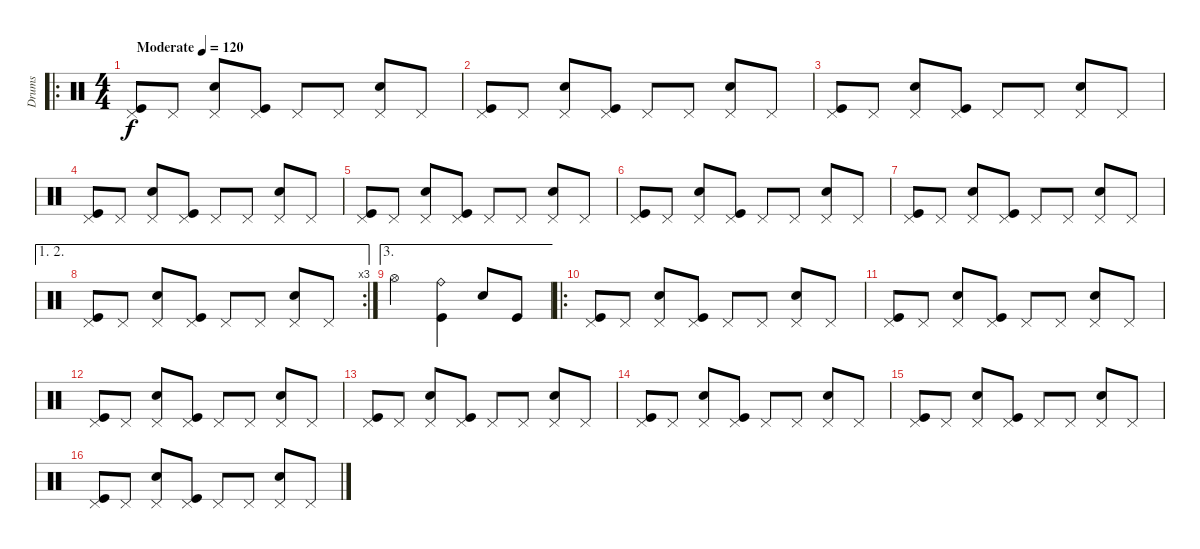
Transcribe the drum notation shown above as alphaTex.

\track ("Drums" "Drums") {instrument percussion}
\staff {score}
\articulation defaults
\ro
\ts (4 4)
\tempo (120 "Moderate")
\clef neutral
\ks c
("Pedal Hi-Hat (hit)" "Kick (hit)").8{dy f} "Pedal Hi-Hat (hit)".8 ("Pedal Hi-Hat (hit)" "Electric Snare (hit)").8 ("Pedal Hi-Hat (hit)" "Kick (hit)").8 "Pedal Hi-Hat (hit)".8 "Pedal Hi-Hat (hit)".8 ("Pedal Hi-Hat (hit)" "Electric Snare (hit)").8 "Pedal Hi-Hat (hit)".8 |
("Pedal Hi-Hat (hit)" "Kick (hit)").8 "Pedal Hi-Hat (hit)".8 ("Pedal Hi-Hat (hit)" "Electric Snare (hit)").8 ("Pedal Hi-Hat (hit)" "Kick (hit)").8 "Pedal Hi-Hat (hit)".8 "Pedal Hi-Hat (hit)".8 ("Pedal Hi-Hat (hit)" "Electric Snare (hit)").8 "Pedal Hi-Hat (hit)".8 |
("Pedal Hi-Hat (hit)" "Kick (hit)").8 "Pedal Hi-Hat (hit)".8 ("Pedal Hi-Hat (hit)" "Electric Snare (hit)").8 ("Pedal Hi-Hat (hit)" "Kick (hit)").8 "Pedal Hi-Hat (hit)".8 "Pedal Hi-Hat (hit)".8 ("Pedal Hi-Hat (hit)" "Electric Snare (hit)").8 "Pedal Hi-Hat (hit)".8 |
("Pedal Hi-Hat (hit)" "Kick (hit)").8 "Pedal Hi-Hat (hit)".8 ("Pedal Hi-Hat (hit)" "Electric Snare (hit)").8 ("Pedal Hi-Hat (hit)" "Kick (hit)").8 "Pedal Hi-Hat (hit)".8 "Pedal Hi-Hat (hit)".8 ("Pedal Hi-Hat (hit)" "Electric Snare (hit)").8 "Pedal Hi-Hat (hit)".8 |
("Pedal Hi-Hat (hit)" "Kick (hit)").8 "Pedal Hi-Hat (hit)".8 ("Pedal Hi-Hat (hit)" "Electric Snare (hit)").8 ("Pedal Hi-Hat (hit)" "Kick (hit)").8 "Pedal Hi-Hat (hit)".8 "Pedal Hi-Hat (hit)".8 ("Pedal Hi-Hat (hit)" "Electric Snare (hit)").8 "Pedal Hi-Hat (hit)".8 |
("Pedal Hi-Hat (hit)" "Kick (hit)").8 "Pedal Hi-Hat (hit)".8 ("Pedal Hi-Hat (hit)" "Electric Snare (hit)").8 ("Pedal Hi-Hat (hit)" "Kick (hit)").8 "Pedal Hi-Hat (hit)".8 "Pedal Hi-Hat (hit)".8 ("Pedal Hi-Hat (hit)" "Electric Snare (hit)").8 "Pedal Hi-Hat (hit)".8 |
("Pedal Hi-Hat (hit)" "Kick (hit)").8 "Pedal Hi-Hat (hit)".8 ("Pedal Hi-Hat (hit)" "Electric Snare (hit)").8 ("Pedal Hi-Hat (hit)" "Kick (hit)").8 "Pedal Hi-Hat (hit)".8 "Pedal Hi-Hat (hit)".8 ("Pedal Hi-Hat (hit)" "Electric Snare (hit)").8 "Pedal Hi-Hat (hit)".8 |
\ae (1 2)
\rc 3
("Pedal Hi-Hat (hit)" "Kick (hit)").8 "Pedal Hi-Hat (hit)".8 ("Pedal Hi-Hat (hit)" "Electric Snare (hit)").8 ("Pedal Hi-Hat (hit)" "Kick (hit)").8 "Pedal Hi-Hat (hit)".8 "Pedal Hi-Hat (hit)".8 ("Pedal Hi-Hat (hit)" "Electric Snare (hit)").8 "Pedal Hi-Hat (hit)".8 |
\ae 3 "Hi-Hat (open)".2
("Ride (bell)" "Kick (hit)").4 "Electric Snare (hit)".8 "Kick (hit)".8 |
\ro
("Pedal Hi-Hat (hit)" "Kick (hit)").8 "Pedal Hi-Hat (hit)".8 ("Pedal Hi-Hat (hit)" "Electric Snare (hit)").8 ("Pedal Hi-Hat (hit)" "Kick (hit)").8 "Pedal Hi-Hat (hit)".8 "Pedal Hi-Hat (hit)".8 ("Pedal Hi-Hat (hit)" "Electric Snare (hit)").8 "Pedal Hi-Hat (hit)".8 |
("Pedal Hi-Hat (hit)" "Kick (hit)").8 "Pedal Hi-Hat (hit)".8 ("Pedal Hi-Hat (hit)" "Electric Snare (hit)").8 ("Pedal Hi-Hat (hit)" "Kick (hit)").8 "Pedal Hi-Hat (hit)".8 "Pedal Hi-Hat (hit)".8 ("Pedal Hi-Hat (hit)" "Electric Snare (hit)").8 "Pedal Hi-Hat (hit)".8 |
("Pedal Hi-Hat (hit)" "Kick (hit)").8 "Pedal Hi-Hat (hit)".8 ("Pedal Hi-Hat (hit)" "Electric Snare (hit)").8 ("Pedal Hi-Hat (hit)" "Kick (hit)").8 "Pedal Hi-Hat (hit)".8 "Pedal Hi-Hat (hit)".8 ("Pedal Hi-Hat (hit)" "Electric Snare (hit)").8 "Pedal Hi-Hat (hit)".8 |
("Pedal Hi-Hat (hit)" "Kick (hit)").8 "Pedal Hi-Hat (hit)".8 ("Pedal Hi-Hat (hit)" "Electric Snare (hit)").8 ("Pedal Hi-Hat (hit)" "Kick (hit)").8 "Pedal Hi-Hat (hit)".8 "Pedal Hi-Hat (hit)".8 ("Pedal Hi-Hat (hit)" "Electric Snare (hit)").8 "Pedal Hi-Hat (hit)".8 |
("Pedal Hi-Hat (hit)" "Kick (hit)").8 "Pedal Hi-Hat (hit)".8 ("Pedal Hi-Hat (hit)" "Electric Snare (hit)").8 ("Pedal Hi-Hat (hit)" "Kick (hit)").8 "Pedal Hi-Hat (hit)".8 "Pedal Hi-Hat (hit)".8 ("Pedal Hi-Hat (hit)" "Electric Snare (hit)").8 "Pedal Hi-Hat (hit)".8 |
("Pedal Hi-Hat (hit)" "Kick (hit)").8 "Pedal Hi-Hat (hit)".8 ("Pedal Hi-Hat (hit)" "Electric Snare (hit)").8 ("Pedal Hi-Hat (hit)" "Kick (hit)").8 "Pedal Hi-Hat (hit)".8 "Pedal Hi-Hat (hit)".8 ("Pedal Hi-Hat (hit)" "Electric Snare (hit)").8 "Pedal Hi-Hat (hit)".8 |
("Pedal Hi-Hat (hit)" "Kick (hit)").8 "Pedal Hi-Hat (hit)".8 ("Pedal Hi-Hat (hit)" "Electric Snare (hit)").8 ("Pedal Hi-Hat (hit)" "Kick (hit)").8 "Pedal Hi-Hat (hit)".8 "Pedal Hi-Hat (hit)".8 ("Pedal Hi-Hat (hit)" "Electric Snare (hit)").8 "Pedal Hi-Hat (hit)".8
